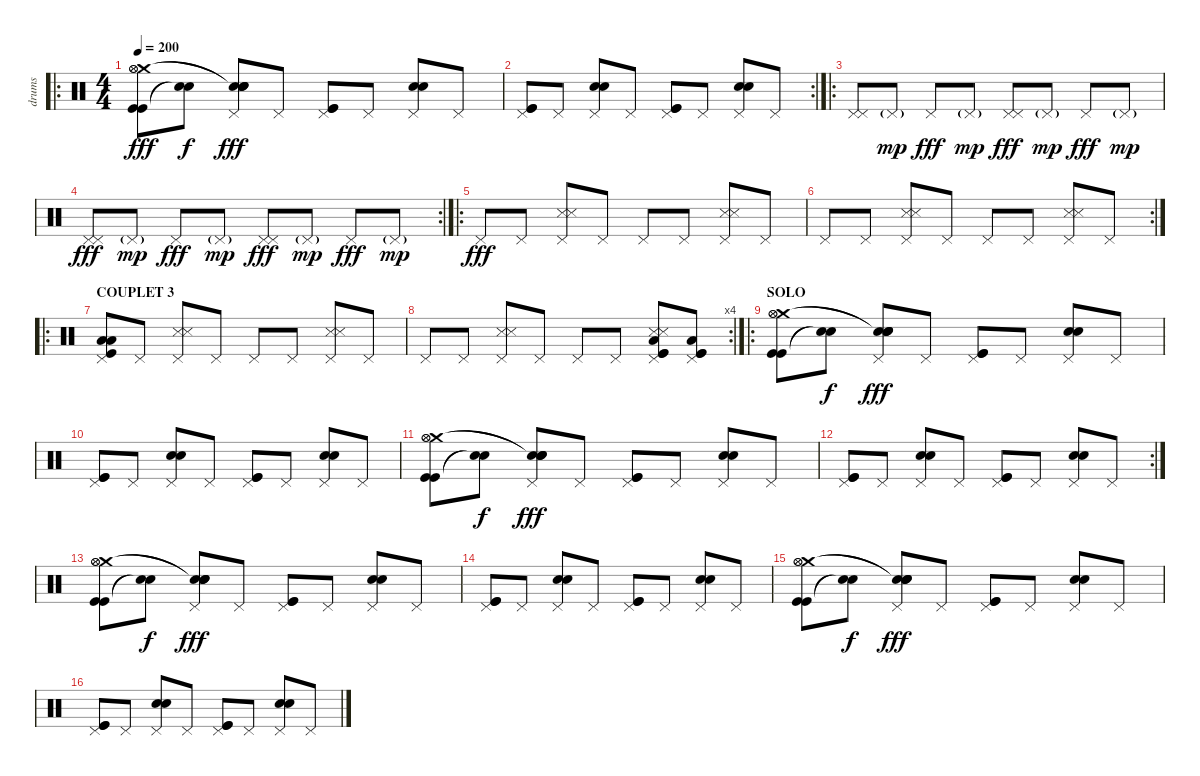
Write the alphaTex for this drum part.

\track ("drums" "drums") {instrument percussion}
\staff {score}
\articulation defaults
\ro
\ts (4 4)
\tempo 200
\clef neutral
\ks c
("Kick (hit)" "Kick (hit)" "Crash medium (hit)" "Hi-Hat (open)" "Hi-Hat (open)").8{dy fff} ("Snare (hit)"{t} "Snare (hit)"{t}).8{dy f} ("Snare (hit) 2" "Electric Snare (hit)" "Pedal Hi-Hat (hit)" "Snare (hit)"{t} "Snare (hit)"{t}).8{dy fff} "Pedal Hi-Hat (hit)".8 ("Kick (hit)" "Kick (hit)" "Pedal Hi-Hat (hit)").8 "Pedal Hi-Hat (hit)".8 ("Snare (hit) 2" "Electric Snare (hit)" "Pedal Hi-Hat (hit)").8 "Pedal Hi-Hat (hit)".8 |
\rc 2
("Kick (hit)" "Kick (hit)" "Pedal Hi-Hat (hit)").8 "Pedal Hi-Hat (hit)".8 ("Snare (hit) 2" "Electric Snare (hit)" "Pedal Hi-Hat (hit)").8 "Pedal Hi-Hat (hit)".8 ("Kick (hit)" "Kick (hit)" "Pedal Hi-Hat (hit)").8 "Pedal Hi-Hat (hit)".8 ("Snare (hit) 2" "Electric Snare (hit)" "Pedal Hi-Hat (hit)").8 "Pedal Hi-Hat (hit)".8 |
\ro
("Pedal Hi-Hat (hit)" "Pedal Hi-Hat (hit)").8 "Pedal Hi-Hat (hit)"{g}.8{dy mp} "Pedal Hi-Hat (hit)".8{dy fff} "Pedal Hi-Hat (hit)"{g}.8{dy mp} ("Pedal Hi-Hat (hit)" "Pedal Hi-Hat (hit)").8{dy fff} "Pedal Hi-Hat (hit)"{g}.8{dy mp} "Pedal Hi-Hat (hit)".8{dy fff} "Pedal Hi-Hat (hit)"{g}.8{dy mp} |
\rc 2
("Pedal Hi-Hat (hit)" "Pedal Hi-Hat (hit)").8{dy fff} "Pedal Hi-Hat (hit)"{g}.8{dy mp} "Pedal Hi-Hat (hit)".8{dy fff} "Pedal Hi-Hat (hit)"{g}.8{dy mp} ("Pedal Hi-Hat (hit)" "Pedal Hi-Hat (hit)").8{dy fff} "Pedal Hi-Hat (hit)"{g}.8{dy mp} "Pedal Hi-Hat (hit)".8{dy fff} "Pedal Hi-Hat (hit)"{g}.8{dy mp} |
\ro "Pedal Hi-Hat (hit)".8{dy fff} "Pedal Hi-Hat (hit)".8
("Pedal Hi-Hat (hit)" "Snare (side stick) 3" "Snare (side stick) 3").8 "Pedal Hi-Hat (hit)".8 "Pedal Hi-Hat (hit)".8 "Pedal Hi-Hat (hit)".8 ("Pedal Hi-Hat (hit)" "Snare (side stick) 3" "Snare (side stick) 3").8 "Pedal Hi-Hat (hit)".8 |
\rc 2 "Pedal Hi-Hat (hit)".8 "Pedal Hi-Hat (hit)".8
("Pedal Hi-Hat (hit)" "Snare (side stick) 3" "Snare (side stick) 3").8 "Pedal Hi-Hat (hit)".8 "Pedal Hi-Hat (hit)".8 "Pedal Hi-Hat (hit)".8 ("Pedal Hi-Hat (hit)" "Snare (side stick) 3" "Snare (side stick) 3").8 "Pedal Hi-Hat (hit)".8 |
\ro
\section ("" "COUPLET 3")
("Pedal Hi-Hat (hit)" "Low Floor Tom (hit)" "Low Floor Tom (hit)" "Kick (hit)").8 "Pedal Hi-Hat (hit)".8 ("Pedal Hi-Hat (hit)" "Snare (side stick) 3" "Snare (side stick) 3").8 "Pedal Hi-Hat (hit)".8 "Pedal Hi-Hat (hit)".8 "Pedal Hi-Hat (hit)".8 ("Pedal Hi-Hat (hit)" "Snare (side stick) 3" "Snare (side stick) 3").8 "Pedal Hi-Hat (hit)".8 |
\rc 4 "Pedal Hi-Hat (hit)".8 "Pedal Hi-Hat (hit)".8
("Pedal Hi-Hat (hit)" "Snare (side stick) 3" "Snare (side stick) 3").8 "Pedal Hi-Hat (hit)".8 "Pedal Hi-Hat (hit)".8 "Pedal Hi-Hat (hit)".8 ("Pedal Hi-Hat (hit)" "Snare (side stick) 3" "Snare (side stick) 3" "Kick (hit)" "Kick (hit)" "Low Floor Tom (hit)").8 ("Pedal Hi-Hat (hit)" "Kick (hit)" "Kick (hit)" "Low Floor Tom (hit)").8 |
\ro
\section ("" "SOLO")
("Kick (hit)" "Kick (hit)" "Crash medium (hit)" "Hi-Hat (open)" "Hi-Hat (open)").8 ("Snare (hit)"{t} "Snare (hit)"{t}).8{dy f} ("Snare (hit) 2" "Electric Snare (hit)" "Pedal Hi-Hat (hit)" "Snare (hit)"{t} "Snare (hit)"{t}).8{dy fff} "Pedal Hi-Hat (hit)".8 ("Kick (hit)" "Kick (hit)" "Pedal Hi-Hat (hit)").8 "Pedal Hi-Hat (hit)".8 ("Snare (hit) 2" "Electric Snare (hit)" "Pedal Hi-Hat (hit)").8 "Pedal Hi-Hat (hit)".8 |
("Kick (hit)" "Kick (hit)" "Pedal Hi-Hat (hit)").8 "Pedal Hi-Hat (hit)".8 ("Snare (hit) 2" "Electric Snare (hit)" "Pedal Hi-Hat (hit)").8 "Pedal Hi-Hat (hit)".8 ("Kick (hit)" "Kick (hit)" "Pedal Hi-Hat (hit)").8 "Pedal Hi-Hat (hit)".8 ("Snare (hit) 2" "Electric Snare (hit)" "Pedal Hi-Hat (hit)").8 "Pedal Hi-Hat (hit)".8 |
("Kick (hit)" "Kick (hit)" "Crash medium (hit)" "Hi-Hat (open)" "Hi-Hat (open)").8 ("Snare (hit)"{t} "Snare (hit)"{t}).8{dy f} ("Snare (hit) 2" "Electric Snare (hit)" "Pedal Hi-Hat (hit)" "Snare (hit)"{t} "Snare (hit)"{t}).8{dy fff} "Pedal Hi-Hat (hit)".8 ("Kick (hit)" "Kick (hit)" "Pedal Hi-Hat (hit)").8 "Pedal Hi-Hat (hit)".8 ("Snare (hit) 2" "Electric Snare (hit)" "Pedal Hi-Hat (hit)").8 "Pedal Hi-Hat (hit)".8 |
\rc 2
("Kick (hit)" "Kick (hit)" "Pedal Hi-Hat (hit)").8 "Pedal Hi-Hat (hit)".8 ("Snare (hit) 2" "Electric Snare (hit)" "Pedal Hi-Hat (hit)").8 "Pedal Hi-Hat (hit)".8 ("Kick (hit)" "Kick (hit)" "Pedal Hi-Hat (hit)").8 "Pedal Hi-Hat (hit)".8 ("Snare (hit) 2" "Electric Snare (hit)" "Pedal Hi-Hat (hit)").8 "Pedal Hi-Hat (hit)".8 |
("Kick (hit)" "Kick (hit)" "Crash medium (hit)" "Hi-Hat (open)" "Hi-Hat (open)").8 ("Snare (hit)"{t} "Snare (hit)"{t}).8{dy f} ("Snare (hit) 2" "Electric Snare (hit)" "Pedal Hi-Hat (hit)" "Snare (hit)"{t} "Snare (hit)"{t}).8{dy fff} "Pedal Hi-Hat (hit)".8 ("Kick (hit)" "Kick (hit)" "Pedal Hi-Hat (hit)").8 "Pedal Hi-Hat (hit)".8 ("Snare (hit) 2" "Electric Snare (hit)" "Pedal Hi-Hat (hit)").8 "Pedal Hi-Hat (hit)".8 |
("Kick (hit)" "Kick (hit)" "Pedal Hi-Hat (hit)").8 "Pedal Hi-Hat (hit)".8 ("Snare (hit) 2" "Electric Snare (hit)" "Pedal Hi-Hat (hit)").8 "Pedal Hi-Hat (hit)".8 ("Kick (hit)" "Kick (hit)" "Pedal Hi-Hat (hit)").8 "Pedal Hi-Hat (hit)".8 ("Snare (hit) 2" "Electric Snare (hit)" "Pedal Hi-Hat (hit)").8 "Pedal Hi-Hat (hit)".8 |
("Kick (hit)" "Kick (hit)" "Crash medium (hit)" "Hi-Hat (open)" "Hi-Hat (open)").8 ("Snare (hit)"{t} "Snare (hit)"{t}).8{dy f} ("Snare (hit) 2" "Electric Snare (hit)" "Pedal Hi-Hat (hit)" "Snare (hit)"{t} "Snare (hit)"{t}).8{dy fff} "Pedal Hi-Hat (hit)".8 ("Kick (hit)" "Kick (hit)" "Pedal Hi-Hat (hit)").8 "Pedal Hi-Hat (hit)".8 ("Snare (hit) 2" "Electric Snare (hit)" "Pedal Hi-Hat (hit)").8 "Pedal Hi-Hat (hit)".8 |
("Kick (hit)" "Kick (hit)" "Pedal Hi-Hat (hit)").8 "Pedal Hi-Hat (hit)".8 ("Snare (hit) 2" "Electric Snare (hit)" "Pedal Hi-Hat (hit)").8 "Pedal Hi-Hat (hit)".8 ("Kick (hit)" "Kick (hit)" "Pedal Hi-Hat (hit)").8 "Pedal Hi-Hat (hit)".8 ("Snare (hit) 2" "Electric Snare (hit)" "Pedal Hi-Hat (hit)").8 "Pedal Hi-Hat (hit)".8
